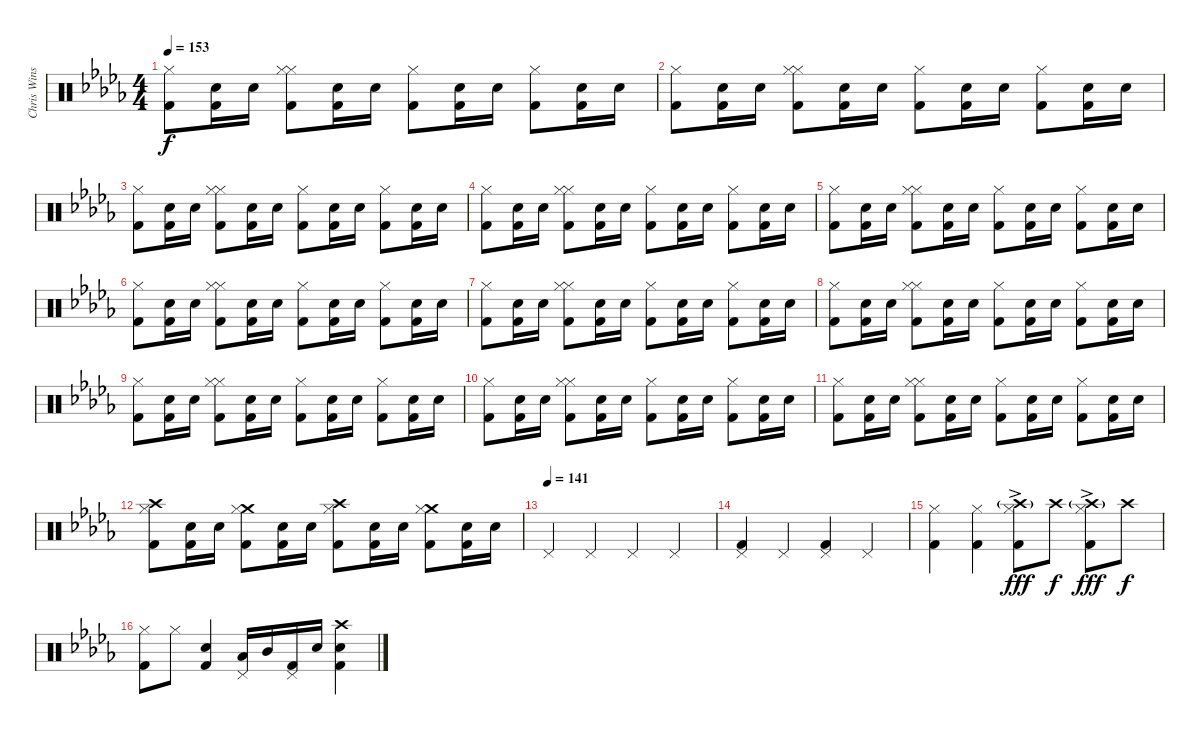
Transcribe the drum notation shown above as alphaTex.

\track ("Chris Winship (Drums)" "Chris Wins") {instrument percussion}
\staff {score}
\articulation defaults
\ts (4 4)
\tempo 153
\clef neutral
\ks db
("Kick (hit) 2" "Hi-Hat (closed)").8{dy f} ("Kick (hit) 2" "Electric Snare (hit)").16 "Electric Snare (hit)".16 ("Hi-Hat (closed)" "Kick (hit) 2" "Hi-Hat (closed)").8 ("Kick (hit) 2" "Electric Snare (hit)").16 "Electric Snare (hit)".16 ("Kick (hit) 2" "Hi-Hat (closed)").8 ("Kick (hit) 2" "Electric Snare (hit)").16 "Electric Snare (hit)".16 ("Kick (hit) 2" "Hi-Hat (closed)").8 ("Kick (hit) 2" "Electric Snare (hit)").16 "Electric Snare (hit)".16 |
("Kick (hit) 2" "Hi-Hat (closed)").8 ("Kick (hit) 2" "Electric Snare (hit)").16 "Electric Snare (hit)".16 ("Hi-Hat (closed)" "Kick (hit) 2" "Hi-Hat (closed)").8 ("Kick (hit) 2" "Electric Snare (hit)").16 "Electric Snare (hit)".16 ("Kick (hit) 2" "Hi-Hat (closed)").8 ("Kick (hit) 2" "Electric Snare (hit)").16 "Electric Snare (hit)".16 ("Kick (hit) 2" "Hi-Hat (closed)").8 ("Kick (hit) 2" "Electric Snare (hit)").16 "Electric Snare (hit)".16 |
("Kick (hit) 2" "Hi-Hat (closed)").8 ("Kick (hit) 2" "Electric Snare (hit)").16 "Electric Snare (hit)".16 ("Hi-Hat (closed)" "Kick (hit) 2" "Hi-Hat (closed)").8 ("Kick (hit) 2" "Electric Snare (hit)").16 "Electric Snare (hit)".16 ("Kick (hit) 2" "Hi-Hat (closed)").8 ("Kick (hit) 2" "Electric Snare (hit)").16 "Electric Snare (hit)".16 ("Kick (hit) 2" "Hi-Hat (closed)").8 ("Kick (hit) 2" "Electric Snare (hit)").16 "Electric Snare (hit)".16 |
("Kick (hit) 2" "Hi-Hat (closed)").8 ("Kick (hit) 2" "Electric Snare (hit)").16 "Electric Snare (hit)".16 ("Hi-Hat (closed)" "Kick (hit) 2" "Hi-Hat (closed)").8 ("Kick (hit) 2" "Electric Snare (hit)").16 "Electric Snare (hit)".16 ("Kick (hit) 2" "Hi-Hat (closed)").8 ("Kick (hit) 2" "Electric Snare (hit)").16 "Electric Snare (hit)".16 ("Kick (hit) 2" "Hi-Hat (closed)").8 ("Kick (hit) 2" "Electric Snare (hit)").16 "Electric Snare (hit)".16 |
("Kick (hit) 2" "Hi-Hat (closed)").8 ("Kick (hit) 2" "Electric Snare (hit)").16 "Electric Snare (hit)".16 ("Hi-Hat (closed)" "Kick (hit) 2" "Hi-Hat (closed)").8 ("Kick (hit) 2" "Electric Snare (hit)").16 "Electric Snare (hit)".16 ("Kick (hit) 2" "Hi-Hat (closed)").8 ("Kick (hit) 2" "Electric Snare (hit)").16 "Electric Snare (hit)".16 ("Kick (hit) 2" "Hi-Hat (closed)").8 ("Kick (hit) 2" "Electric Snare (hit)").16 "Electric Snare (hit)".16 |
("Kick (hit) 2" "Hi-Hat (closed)").8 ("Kick (hit) 2" "Electric Snare (hit)").16 "Electric Snare (hit)".16 ("Hi-Hat (closed)" "Kick (hit) 2" "Hi-Hat (closed)").8 ("Kick (hit) 2" "Electric Snare (hit)").16 "Electric Snare (hit)".16 ("Kick (hit) 2" "Hi-Hat (closed)").8 ("Kick (hit) 2" "Electric Snare (hit)").16 "Electric Snare (hit)".16 ("Kick (hit) 2" "Hi-Hat (closed)").8 ("Kick (hit) 2" "Electric Snare (hit)").16 "Electric Snare (hit)".16 |
("Kick (hit) 2" "Hi-Hat (closed)").8 ("Kick (hit) 2" "Electric Snare (hit)").16 "Electric Snare (hit)".16 ("Hi-Hat (closed)" "Kick (hit) 2" "Hi-Hat (closed)").8 ("Kick (hit) 2" "Electric Snare (hit)").16 "Electric Snare (hit)".16 ("Kick (hit) 2" "Hi-Hat (closed)").8 ("Kick (hit) 2" "Electric Snare (hit)").16 "Electric Snare (hit)".16 ("Kick (hit) 2" "Hi-Hat (closed)").8 ("Kick (hit) 2" "Electric Snare (hit)").16 "Electric Snare (hit)".16 |
("Kick (hit) 2" "Hi-Hat (closed)").8 ("Kick (hit) 2" "Electric Snare (hit)").16 "Electric Snare (hit)".16 ("Hi-Hat (closed)" "Kick (hit) 2" "Hi-Hat (closed)").8 ("Kick (hit) 2" "Electric Snare (hit)").16 "Electric Snare (hit)".16 ("Kick (hit) 2" "Hi-Hat (closed)").8 ("Kick (hit) 2" "Electric Snare (hit)").16 "Electric Snare (hit)".16 ("Kick (hit) 2" "Hi-Hat (closed)").8 ("Kick (hit) 2" "Electric Snare (hit)").16 "Electric Snare (hit)".16 |
("Kick (hit) 2" "Hi-Hat (closed)").8 ("Kick (hit) 2" "Electric Snare (hit)").16 "Electric Snare (hit)".16 ("Hi-Hat (closed)" "Kick (hit) 2" "Hi-Hat (closed)").8 ("Kick (hit) 2" "Electric Snare (hit)").16 "Electric Snare (hit)".16 ("Kick (hit) 2" "Hi-Hat (closed)").8 ("Kick (hit) 2" "Electric Snare (hit)").16 "Electric Snare (hit)".16 ("Kick (hit) 2" "Hi-Hat (closed)").8 ("Kick (hit) 2" "Electric Snare (hit)").16 "Electric Snare (hit)".16 |
("Kick (hit) 2" "Hi-Hat (closed)").8 ("Kick (hit) 2" "Electric Snare (hit)").16 "Electric Snare (hit)".16 ("Hi-Hat (closed)" "Kick (hit) 2" "Hi-Hat (closed)").8 ("Kick (hit) 2" "Electric Snare (hit)").16 "Electric Snare (hit)".16 ("Kick (hit) 2" "Hi-Hat (closed)").8 ("Kick (hit) 2" "Electric Snare (hit)").16 "Electric Snare (hit)".16 ("Kick (hit) 2" "Hi-Hat (closed)").8 ("Kick (hit) 2" "Electric Snare (hit)").16 "Electric Snare (hit)".16 |
("Kick (hit) 2" "Hi-Hat (closed)").8 ("Kick (hit) 2" "Electric Snare (hit)").16 "Electric Snare (hit)".16 ("Hi-Hat (closed)" "Kick (hit) 2" "Hi-Hat (closed)").8 ("Kick (hit) 2" "Electric Snare (hit)").16 "Electric Snare (hit)".16 ("Kick (hit) 2" "Hi-Hat (closed)").8 ("Kick (hit) 2" "Electric Snare (hit)").16 "Electric Snare (hit)".16 ("Kick (hit) 2" "Hi-Hat (closed)").8 ("Kick (hit) 2" "Electric Snare (hit)").16 "Electric Snare (hit)".16 |
("Crash high (hit)" "Kick (hit) 2" "Hi-Hat (closed)").8 ("Kick (hit) 2" "Electric Snare (hit)").16 "Electric Snare (hit)".16 ("Crash medium (hit)" "Kick (hit) 2" "Hi-Hat (closed)").8 ("Kick (hit) 2" "Electric Snare (hit)").16 "Electric Snare (hit)".16 ("Crash high (hit)" "Kick (hit) 2" "Hi-Hat (closed)").8 ("Kick (hit) 2" "Electric Snare (hit)").16 "Electric Snare (hit)".16 ("Crash medium (hit)" "Kick (hit) 2" "Hi-Hat (closed)").8 ("Kick (hit) 2" "Electric Snare (hit)").16 "Electric Snare (hit)".16 |
\tempo (141)
"Pedal Hi-Hat (hit)".4{volume 16} "Pedal Hi-Hat (hit)".4 "Pedal Hi-Hat (hit)".4 "Pedal Hi-Hat (hit)".4 |
("Kick (hit) 2" "Pedal Hi-Hat (hit)").4 "Pedal Hi-Hat (hit)".4 ("Kick (hit) 2" "Pedal Hi-Hat (hit)").4 "Pedal Hi-Hat (hit)".4 |
("Hi-Hat (closed)" "Kick (hit) 2").4 ("Kick (hit) 2" "Hi-Hat (closed)").4 ("Crash high (hit)"{g} "Kick (hit) 2"{ac} "Hi-Hat (closed)").8{dy fff} "Crash high (hit)".8{dy f} ("Crash high (hit)"{g} "Kick (hit) 2"{ac} "Hi-Hat (closed)").8{dy fff} "Crash high (hit)".8{dy f} |
("Hi-Hat (closed)" "Kick (hit) 2").8 "Hi-Hat (closed)".8 ("Electric Snare (hit)" "Kick (hit) 2").4 ("Pedal Hi-Hat (hit)" "Low Tom (hit)").16 "Mid Tom (hit)".16 ("Pedal Hi-Hat (hit)" "Kick (hit) 2").16 "Electric Snare (hit)".16 ("Crash high (hit)" "Kick (hit) 2" "Electric Snare (hit)").4
